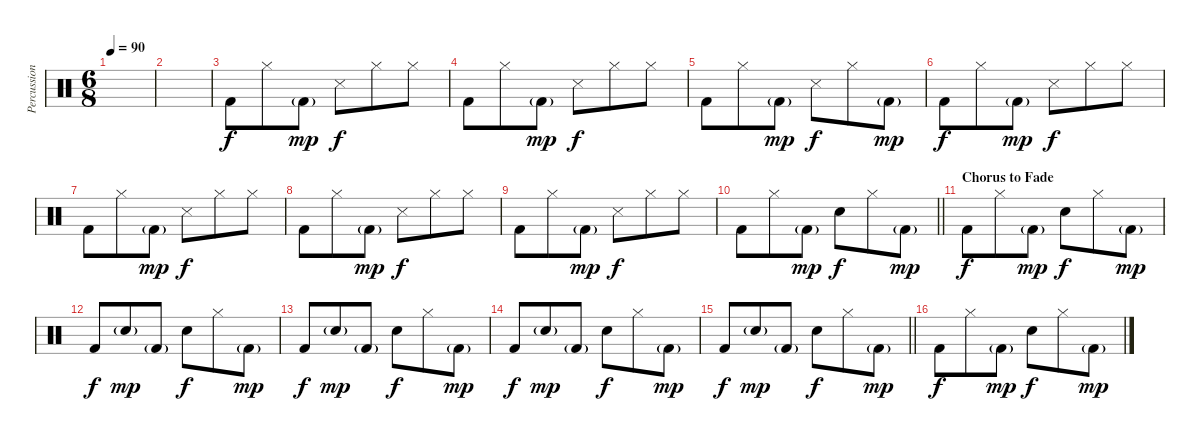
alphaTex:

\track ("Percussion" "Percussion") {instrument percussion}
\staff {score}
\articulation defaults
\ts (6 8)
\tempo 90
\clef neutral
\ks c
|
|
"Kick (hit) 2".8 "Hi-Hat (closed)".8 "Kick (hit) 2"{g}.8{dy mp} "Snare (side stick) 3".8{dy f} "Hi-Hat (closed)".8 "Hi-Hat (closed)".8 |
"Kick (hit) 2".8 "Hi-Hat (closed)".8 "Kick (hit) 2"{g}.8{dy mp} "Snare (side stick) 3".8{dy f} "Hi-Hat (closed)".8 "Hi-Hat (closed)".8 |
"Kick (hit) 2".8 "Hi-Hat (closed)".8 "Kick (hit) 2"{g}.8{dy mp} "Snare (side stick) 3".8{dy f} "Hi-Hat (closed)".8 "Kick (hit) 2"{g}.8{dy mp} |
"Kick (hit) 2".8{dy f} "Hi-Hat (closed)".8 "Kick (hit) 2"{g}.8{dy mp} "Snare (side stick) 3".8{dy f} "Hi-Hat (closed)".8 "Hi-Hat (closed)".8 |
"Kick (hit) 2".8 "Hi-Hat (closed)".8 "Kick (hit) 2"{g}.8{dy mp} "Snare (side stick) 3".8{dy f} "Hi-Hat (closed)".8 "Hi-Hat (closed)".8 |
"Kick (hit) 2".8 "Hi-Hat (closed)".8 "Kick (hit) 2"{g}.8{dy mp} "Snare (side stick) 3".8{dy f} "Hi-Hat (closed)".8 "Hi-Hat (closed)".8 |
"Kick (hit) 2".8 "Hi-Hat (closed)".8 "Kick (hit) 2"{g}.8{dy mp} "Snare (side stick) 3".8{dy f} "Hi-Hat (closed)".8 "Hi-Hat (closed)".8 |
\barLineRight lightlight "Kick (hit) 2".8 "Hi-Hat (closed)".8 "Kick (hit) 2"{g}.8{dy mp} "Snare (hit) 2".8{dy f} "Hi-Hat (closed)".8 "Kick (hit) 2"{g}.8{dy mp}
|
\section ("" "Chorus to Fade")
"Kick (hit) 2".8{dy f} "Hi-Hat (closed)".8 "Kick (hit) 2"{g}.8{dy mp} "Snare (hit) 2".8{dy f} "Hi-Hat (closed)".8 "Kick (hit) 2"{g}.8{dy mp} |
"Kick (hit) 2".8{dy f} "Snare (hit) 2"{g}.8{dy mp} "Kick (hit) 2"{g}.8 "Snare (hit) 2".8{dy f} "Hi-Hat (closed)".8 "Kick (hit) 2"{g}.8{dy mp} |
"Kick (hit) 2".8{dy f} "Snare (hit) 2"{g}.8{dy mp} "Kick (hit) 2"{g}.8 "Snare (hit) 2".8{dy f} "Hi-Hat (closed)".8 "Kick (hit) 2"{g}.8{dy mp} |
"Kick (hit) 2".8{dy f} "Snare (hit) 2"{g}.8{dy mp} "Kick (hit) 2"{g}.8 "Snare (hit) 2".8{dy f} "Hi-Hat (closed)".8 "Kick (hit) 2"{g}.8{dy mp} |
\barLineRight lightlight "Kick (hit) 2".8{dy f} "Snare (hit) 2"{g}.8{dy mp} "Kick (hit) 2"{g}.8 "Snare (hit) 2".8{dy f} "Hi-Hat (closed)".8 "Kick (hit) 2"{g}.8{dy mp}
|
"Kick (hit) 2".8{dy f} "Hi-Hat (closed)".8 "Kick (hit) 2"{g}.8{dy mp} "Snare (hit) 2".8{dy f} "Hi-Hat (closed)".8 "Kick (hit) 2"{g}.8{dy mp}
